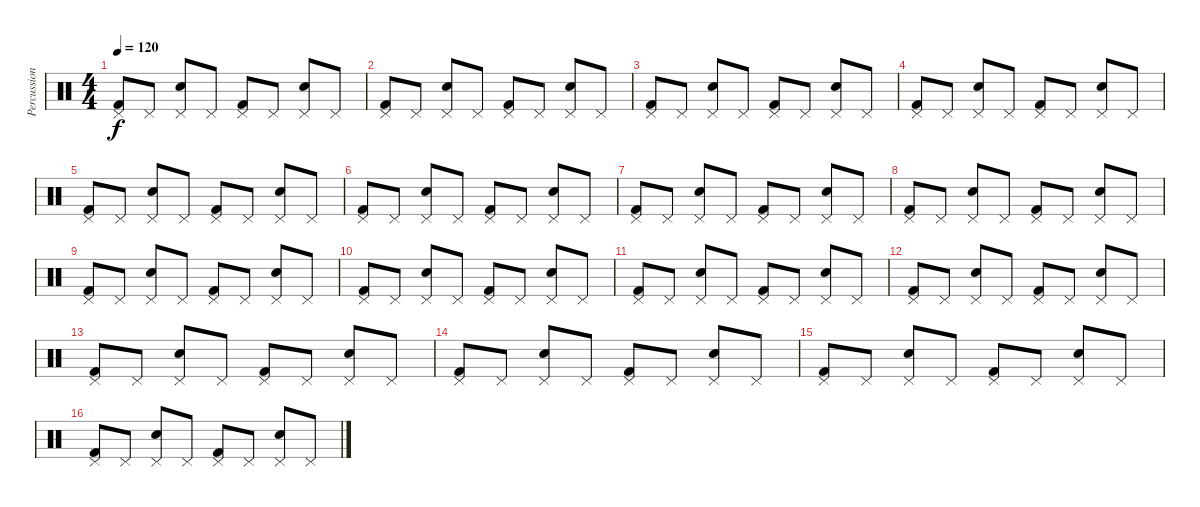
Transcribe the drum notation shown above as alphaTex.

\track ("Percussion" "Percussion") {instrument percussion}
\staff {score}
\articulation defaults
\ts (4 4)
\tempo 120
\clef neutral
\ks c
("Pedal Hi-Hat (hit)" "Kick (hit) 2").8{dy f} "Pedal Hi-Hat (hit)".8 ("Pedal Hi-Hat (hit)" "Electric Snare (hit)").8 "Pedal Hi-Hat (hit)".8 ("Pedal Hi-Hat (hit)" "Kick (hit) 2").8 "Pedal Hi-Hat (hit)".8 ("Pedal Hi-Hat (hit)" "Electric Snare (hit)").8 "Pedal Hi-Hat (hit)".8 |
("Pedal Hi-Hat (hit)" "Kick (hit) 2").8 "Pedal Hi-Hat (hit)".8 ("Pedal Hi-Hat (hit)" "Electric Snare (hit)").8 "Pedal Hi-Hat (hit)".8 ("Pedal Hi-Hat (hit)" "Kick (hit) 2").8 "Pedal Hi-Hat (hit)".8 ("Pedal Hi-Hat (hit)" "Electric Snare (hit)").8 "Pedal Hi-Hat (hit)".8 |
("Pedal Hi-Hat (hit)" "Kick (hit) 2").8 "Pedal Hi-Hat (hit)".8 ("Pedal Hi-Hat (hit)" "Electric Snare (hit)").8 "Pedal Hi-Hat (hit)".8 ("Pedal Hi-Hat (hit)" "Kick (hit) 2").8 "Pedal Hi-Hat (hit)".8 ("Pedal Hi-Hat (hit)" "Electric Snare (hit)").8 "Pedal Hi-Hat (hit)".8 |
("Pedal Hi-Hat (hit)" "Kick (hit) 2").8 "Pedal Hi-Hat (hit)".8 ("Pedal Hi-Hat (hit)" "Electric Snare (hit)").8 "Pedal Hi-Hat (hit)".8 ("Pedal Hi-Hat (hit)" "Kick (hit) 2").8 "Pedal Hi-Hat (hit)".8 ("Pedal Hi-Hat (hit)" "Electric Snare (hit)").8 "Pedal Hi-Hat (hit)".8 |
("Pedal Hi-Hat (hit)" "Kick (hit) 2").8 "Pedal Hi-Hat (hit)".8 ("Pedal Hi-Hat (hit)" "Electric Snare (hit)").8 "Pedal Hi-Hat (hit)".8 ("Pedal Hi-Hat (hit)" "Kick (hit) 2").8 "Pedal Hi-Hat (hit)".8 ("Pedal Hi-Hat (hit)" "Electric Snare (hit)").8 "Pedal Hi-Hat (hit)".8 |
("Pedal Hi-Hat (hit)" "Kick (hit) 2").8 "Pedal Hi-Hat (hit)".8 ("Pedal Hi-Hat (hit)" "Electric Snare (hit)").8 "Pedal Hi-Hat (hit)".8 ("Pedal Hi-Hat (hit)" "Kick (hit) 2").8 "Pedal Hi-Hat (hit)".8 ("Pedal Hi-Hat (hit)" "Electric Snare (hit)").8 "Pedal Hi-Hat (hit)".8 |
("Pedal Hi-Hat (hit)" "Kick (hit) 2").8 "Pedal Hi-Hat (hit)".8 ("Pedal Hi-Hat (hit)" "Electric Snare (hit)").8 "Pedal Hi-Hat (hit)".8 ("Pedal Hi-Hat (hit)" "Kick (hit) 2").8 "Pedal Hi-Hat (hit)".8 ("Pedal Hi-Hat (hit)" "Electric Snare (hit)").8 "Pedal Hi-Hat (hit)".8 |
("Pedal Hi-Hat (hit)" "Kick (hit) 2").8 "Pedal Hi-Hat (hit)".8 ("Pedal Hi-Hat (hit)" "Electric Snare (hit)").8 "Pedal Hi-Hat (hit)".8 ("Pedal Hi-Hat (hit)" "Kick (hit) 2").8 "Pedal Hi-Hat (hit)".8 ("Pedal Hi-Hat (hit)" "Electric Snare (hit)").8 "Pedal Hi-Hat (hit)".8 |
("Pedal Hi-Hat (hit)" "Kick (hit) 2").8 "Pedal Hi-Hat (hit)".8 ("Pedal Hi-Hat (hit)" "Electric Snare (hit)").8 "Pedal Hi-Hat (hit)".8 ("Pedal Hi-Hat (hit)" "Kick (hit) 2").8 "Pedal Hi-Hat (hit)".8 ("Pedal Hi-Hat (hit)" "Electric Snare (hit)").8 "Pedal Hi-Hat (hit)".8 |
("Pedal Hi-Hat (hit)" "Kick (hit) 2").8 "Pedal Hi-Hat (hit)".8 ("Pedal Hi-Hat (hit)" "Electric Snare (hit)").8 "Pedal Hi-Hat (hit)".8 ("Pedal Hi-Hat (hit)" "Kick (hit) 2").8 "Pedal Hi-Hat (hit)".8 ("Pedal Hi-Hat (hit)" "Electric Snare (hit)").8 "Pedal Hi-Hat (hit)".8 |
("Pedal Hi-Hat (hit)" "Kick (hit) 2").8 "Pedal Hi-Hat (hit)".8 ("Pedal Hi-Hat (hit)" "Electric Snare (hit)").8 "Pedal Hi-Hat (hit)".8 ("Pedal Hi-Hat (hit)" "Kick (hit) 2").8 "Pedal Hi-Hat (hit)".8 ("Pedal Hi-Hat (hit)" "Electric Snare (hit)").8 "Pedal Hi-Hat (hit)".8 |
("Pedal Hi-Hat (hit)" "Kick (hit) 2").8 "Pedal Hi-Hat (hit)".8 ("Pedal Hi-Hat (hit)" "Electric Snare (hit)").8 "Pedal Hi-Hat (hit)".8 ("Pedal Hi-Hat (hit)" "Kick (hit) 2").8 "Pedal Hi-Hat (hit)".8 ("Pedal Hi-Hat (hit)" "Electric Snare (hit)").8 "Pedal Hi-Hat (hit)".8 |
("Pedal Hi-Hat (hit)" "Kick (hit) 2").8 "Pedal Hi-Hat (hit)".8 ("Pedal Hi-Hat (hit)" "Electric Snare (hit)").8 "Pedal Hi-Hat (hit)".8 ("Pedal Hi-Hat (hit)" "Kick (hit) 2").8 "Pedal Hi-Hat (hit)".8 ("Pedal Hi-Hat (hit)" "Electric Snare (hit)").8 "Pedal Hi-Hat (hit)".8 |
("Pedal Hi-Hat (hit)" "Kick (hit) 2").8 "Pedal Hi-Hat (hit)".8 ("Pedal Hi-Hat (hit)" "Electric Snare (hit)").8 "Pedal Hi-Hat (hit)".8 ("Pedal Hi-Hat (hit)" "Kick (hit) 2").8 "Pedal Hi-Hat (hit)".8 ("Pedal Hi-Hat (hit)" "Electric Snare (hit)").8 "Pedal Hi-Hat (hit)".8 |
("Pedal Hi-Hat (hit)" "Kick (hit) 2").8 "Pedal Hi-Hat (hit)".8 ("Pedal Hi-Hat (hit)" "Electric Snare (hit)").8 "Pedal Hi-Hat (hit)".8 ("Pedal Hi-Hat (hit)" "Kick (hit) 2").8 "Pedal Hi-Hat (hit)".8 ("Pedal Hi-Hat (hit)" "Electric Snare (hit)").8 "Pedal Hi-Hat (hit)".8 |
("Pedal Hi-Hat (hit)" "Kick (hit) 2").8 "Pedal Hi-Hat (hit)".8 ("Pedal Hi-Hat (hit)" "Electric Snare (hit)").8 "Pedal Hi-Hat (hit)".8 ("Pedal Hi-Hat (hit)" "Kick (hit) 2").8 "Pedal Hi-Hat (hit)".8 ("Pedal Hi-Hat (hit)" "Electric Snare (hit)").8 "Pedal Hi-Hat (hit)".8
